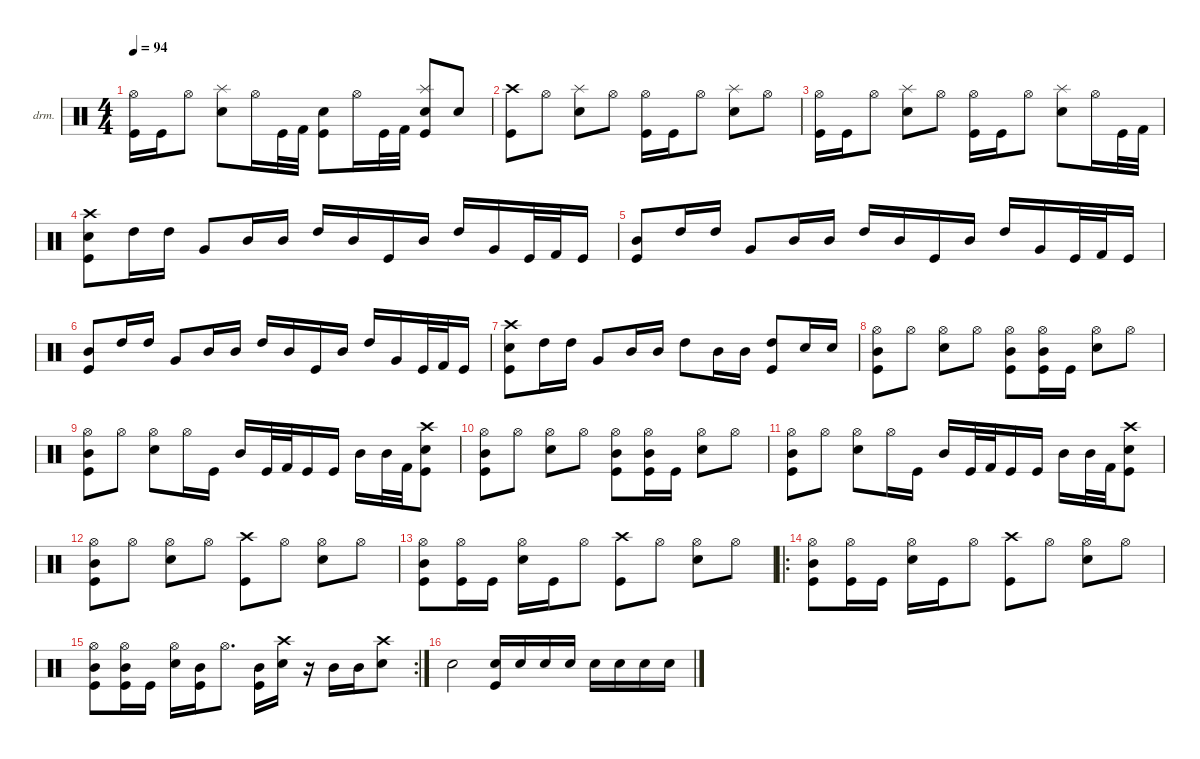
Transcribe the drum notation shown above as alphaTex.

\defaultSystemsLayout 4
\hideDynamics
\bracketExtendMode nobrackets
\firstSystemTrackNameOrientation horizontal
\otherSystemsTrackNameOrientation horizontal
\track ("Lars Ulrich" "drm.") {instrument percussion}
\staff {score}
\articulation defaults
\ts (4 4)
\tempo 94
\clef neutral
\ks c
("Hi-Hat (open)" "Kick (hit)").16{dy f} "Kick (hit)".16{dy ff} "Hi-Hat (open)".8{dy f} ("Splash (hit)" "Snare (hit) 2").8 "Hi-Hat (open)".16 "Kick (hit)".32{dy ff} "Kick (hit) 2".32 ("Snare (hit) 2" "Kick (hit)").8 "Hi-Hat (open)".16{dy f} "Kick (hit)".32{dy ff} "Kick (hit) 2".32 ("Splash (hit)" "Snare (hit) 2" "Kick (hit)").8{dy f} "Snare (hit) 2".8{dy ff} |
("Crash high (hit)" "Kick (hit)").8{dy f} "Hi-Hat (open)".8 ("Splash (hit)" "Snare (hit) 2").8 "Hi-Hat (open)".8 ("Hi-Hat (open)" "Kick (hit)").16 "Kick (hit)".16{dy ff} "Hi-Hat (open)".8{dy f} ("Splash (hit)" "Snare (hit) 2").8 "Hi-Hat (open)".8 |
("Hi-Hat (open)" "Kick (hit)").16 "Kick (hit)".16{dy ff} "Hi-Hat (open)".8{dy f} ("Splash (hit)" "Snare (hit) 2").8 "Hi-Hat (open)".8 ("Hi-Hat (open)" "Kick (hit)").16 "Kick (hit)".16{dy ff} "Hi-Hat (open)".8{dy f} ("Splash (hit)" "Snare (hit) 2").8 "Hi-Hat (open)".16 "Kick (hit)".32{dy ff} "Kick (hit) 2".32 |
("Crash high (hit)" "Snare (hit) 2" "Kick (hit)").8{dy f} "High Tom (hit)".16{dy ff} "High Tom (hit)".16 "Very Low Tom (hit)".8 "Mid Tom (hit)".16 "Mid Tom (hit)".16 "High Tom (hit)".16 "Mid Tom (hit)".16 "Kick (hit)".16 "Mid Tom (hit)".16 "High Tom (hit)".16 "Very Low Tom (hit)".16 "Kick (hit)".32 "Kick (hit) 2".32 "Kick (hit)".16 |
("Mid Tom (hit)" "Kick (hit)").8 "High Tom (hit)".16 "High Tom (hit)".16 "Very Low Tom (hit)".8 "Mid Tom (hit)".16 "Mid Tom (hit)".16 "High Tom (hit)".16 "Mid Tom (hit)".16 "Kick (hit)".16 "Mid Tom (hit)".16 "High Tom (hit)".16 "Very Low Tom (hit)".16 "Kick (hit)".32 "Kick (hit) 2".32 "Kick (hit)".16 |
("Mid Tom (hit)" "Kick (hit)").8 "High Tom (hit)".16 "High Tom (hit)".16 "Very Low Tom (hit)".8 "Mid Tom (hit)".16 "Mid Tom (hit)".16 "High Tom (hit)".16 "Mid Tom (hit)".16 "Kick (hit)".16 "Mid Tom (hit)".16 "High Tom (hit)".16 "Very Low Tom (hit)".16 "Kick (hit)".32 "Kick (hit) 2".32 "Kick (hit)".16 |
("Crash high (hit)" "Snare (hit) 2" "Kick (hit)").8{dy f} "High Tom (hit)".16{dy ff} "High Tom (hit)".16 "Very Low Tom (hit)".8 "Mid Tom (hit)".16 "Mid Tom (hit)".16 "High Tom (hit)".8 "Mid Tom (hit)".16 "Mid Tom (hit)".16 ("High Tom (hit)" "Kick (hit)").8 "Snare (hit) 2".16{dy fff} "Snare (hit) 2".16 |
("Hi-Hat (open)" "Mid Tom (hit)" "Kick (hit)").8{dy f} "Hi-Hat (open)".8 ("Hi-Hat (open)" "Snare (hit) 2").8 "Hi-Hat (open)".8 ("Hi-Hat (open)" "Mid Tom (hit)" "Kick (hit)").8 ("Hi-Hat (open)" "Mid Tom (hit)" "Kick (hit)").16 "Kick (hit)".16{dy ff} ("Hi-Hat (open)" "Snare (hit) 2").8{dy f} "Hi-Hat (open)".8 |
("Hi-Hat (open)" "Mid Tom (hit)" "Kick (hit)").8 "Hi-Hat (open)".8 ("Hi-Hat (open)" "Snare (hit) 2").8 "Hi-Hat (open)".16 "Kick (hit)".16{dy ff} "Mid Tom (hit)".16 "Kick (hit)".32 "Kick (hit) 2".32 "Kick (hit)".16 "Kick (hit)".16 "Mid Tom (hit)".16 "Mid Tom (hit)".32 "Kick (hit) 2".32 ("Crash high (hit)" "Snare (hit) 2" "Kick (hit)").8{dy f} |
("Hi-Hat (open)" "Mid Tom (hit)" "Kick (hit)").8 "Hi-Hat (open)".8 ("Hi-Hat (open)" "Snare (hit) 2").8 "Hi-Hat (open)".8 ("Hi-Hat (open)" "Mid Tom (hit)" "Kick (hit)").8 ("Hi-Hat (open)" "Mid Tom (hit)" "Kick (hit)").16 "Kick (hit)".16{dy ff} ("Hi-Hat (open)" "Snare (hit) 2").8{dy f} "Hi-Hat (open)".8 |
("Hi-Hat (open)" "Mid Tom (hit)" "Kick (hit)").8 "Hi-Hat (open)".8 ("Hi-Hat (open)" "Snare (hit) 2").8 "Hi-Hat (open)".16 "Kick (hit)".16{dy ff} "Mid Tom (hit)".16 "Kick (hit)".32 "Kick (hit) 2".32 "Kick (hit)".16 "Kick (hit)".16 "Mid Tom (hit)".16 "Mid Tom (hit)".32 "Kick (hit) 2".32 ("Crash high (hit)" "Snare (hit) 2" "Kick (hit)").8{dy f} |
("Hi-Hat (open)" "Mid Tom (hit)" "Kick (hit)").8 "Hi-Hat (open)".8 ("Hi-Hat (open)" "Snare (hit) 2").8 "Hi-Hat (open)".8 ("Crash high (hit)" "Kick (hit)").8 "Hi-Hat (open)".8 ("Hi-Hat (open)" "Snare (hit) 2").8 "Hi-Hat (open)".8 |
("Hi-Hat (open)" "Mid Tom (hit)" "Kick (hit)").8 ("Hi-Hat (open)" "Kick (hit)").16 "Kick (hit)".16{dy ff} ("Hi-Hat (open)" "Snare (hit) 2").16{dy f} "Kick (hit)".16{dy ff} "Hi-Hat (open)".8{dy f} ("Crash high (hit)" "Kick (hit)").8 "Hi-Hat (open)".8 ("Hi-Hat (open)" "Snare (hit) 2").8 "Hi-Hat (open)".8 |
\ro
("Hi-Hat (open)" "Mid Tom (hit)" "Kick (hit)").8 ("Hi-Hat (open)" "Kick (hit)").16 "Kick (hit)".16{dy ff} ("Hi-Hat (open)" "Snare (hit) 2").16{dy f} "Kick (hit)".16{dy ff} "Hi-Hat (open)".8{dy f} ("Crash high (hit)" "Kick (hit)").8 "Hi-Hat (open)".8 ("Hi-Hat (open)" "Snare (hit) 2").8 "Hi-Hat (open)".8 |
\rc 2
("Hi-Hat (open)" "Mid Tom (hit)" "Kick (hit)").8 ("Hi-Hat (open)" "Mid Tom (hit)" "Kick (hit)").16 "Kick (hit)".16{dy ff} ("Hi-Hat (open)" "Snare (hit) 2").16{dy f} ("Mid Tom (hit)" "Kick (hit)").16{dy ff} "Hi-Hat (open)".8{d dy f} ("Mid Tom (hit)" "Kick (hit)").16{dy fff} ("Crash high (hit)" "Snare (hit) 2").16{dy f} r.16 "Mid Tom (hit)".16{dy ff} "Mid Tom (hit)".16 ("Crash high (hit)" "Snare (hit) 2").8{dy f} |
"Snare (hit) 2".2{dy fff} ("Snare (hit) 2" "Kick (hit)").16{dy f} "Snare (hit) 2".16 "Snare (hit) 2".16 "Snare (hit) 2".16 "Snare (hit) 2".16{dy ff} "Snare (hit) 2".16 "Snare (hit) 2".16 "Snare (hit) 2".16
